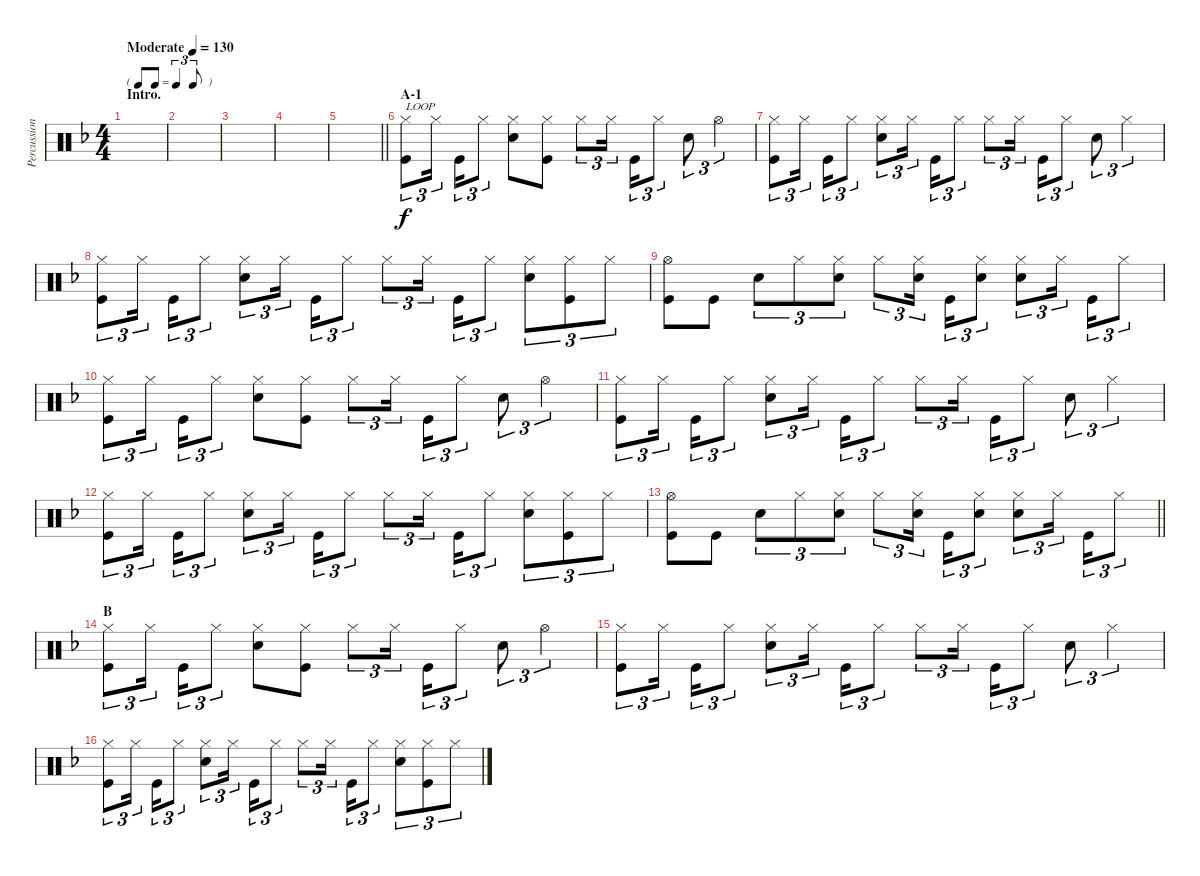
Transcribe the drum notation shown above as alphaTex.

\track ("Percussion I (Tainaka Ritsu)" "Percussion") {instrument percussion}
\staff {score}
\articulation defaults
\ts (4 4)
\tf triplet8th
\section ("" "Intro.")
\tempo (130 "Moderate")
\clef neutral
\ks f
|
|
|
|
\barLineRight lightlight
|
\section ("" "A-1")
("Hi-Hat (closed)" "Kick (hit)").8{tu (3 2) txt "LOOP"} "Hi-Hat (closed)".16{tu (3 2) beam splitsecondary} "Kick (hit)".16{tu (3 2)} "Hi-Hat (closed)".8{tu (3 2)} ("Hi-Hat (closed)" "Snare (hit) 2").8 ("Hi-Hat (closed)" "Kick (hit)").8 "Hi-Hat (closed)".8{tu (3 2)} "Hi-Hat (closed)".16{tu (3 2) beam splitsecondary} "Kick (hit)".16{tu (3 2)} "Hi-Hat (closed)".8{tu (3 2)} "Snare (hit) 2".8{tu (3 2)} "Hi-Hat (open)".4{tu (3 2)} |
("Hi-Hat (closed)" "Kick (hit)").8{tu (3 2)} "Hi-Hat (closed)".16{tu (3 2) beam splitsecondary} "Kick (hit)".16{tu (3 2)} "Hi-Hat (closed)".8{tu (3 2)} ("Hi-Hat (closed)" "Snare (hit) 2").8{tu (3 2)} "Hi-Hat (closed)".16{tu (3 2) beam splitsecondary} "Kick (hit)".16{tu (3 2)} "Hi-Hat (closed)".8{tu (3 2)} "Hi-Hat (closed)".8{tu (3 2)} "Hi-Hat (closed)".16{tu (3 2) beam splitsecondary} "Kick (hit)".16{tu (3 2)} "Hi-Hat (closed)".8{tu (3 2)} "Snare (hit) 2".8{tu (3 2)} "Hi-Hat (closed)".4{tu (3 2)} |
("Hi-Hat (closed)" "Kick (hit)").8{tu (3 2)} "Hi-Hat (closed)".16{tu (3 2) beam splitsecondary} "Kick (hit)".16{tu (3 2)} "Hi-Hat (closed)".8{tu (3 2)} ("Hi-Hat (closed)" "Snare (hit) 2").8{tu (3 2)} "Hi-Hat (closed)".16{tu (3 2) beam splitsecondary} "Kick (hit)".16{tu (3 2)} "Hi-Hat (closed)".8{tu (3 2)} "Hi-Hat (closed)".8{tu (3 2)} "Hi-Hat (closed)".16{tu (3 2) beam splitsecondary} "Kick (hit)".16{tu (3 2)} "Hi-Hat (closed)".8{tu (3 2)} ("Hi-Hat (closed)" "Snare (hit) 2").8{tu (3 2)} ("Hi-Hat (closed)" "Kick (hit)").8{tu (3 2)} "Hi-Hat (closed)".8{tu (3 2)} |
("Hi-Hat (open)" "Kick (hit)").8 "Kick (hit)".8 "Snare (hit) 2".8{tu (3 2)} "Hi-Hat (closed)".8{tu (3 2)} ("Hi-Hat (closed)" "Snare (hit) 2").8{tu (3 2)} "Hi-Hat (closed)".8{tu (3 2)} ("Hi-Hat (closed)" "Snare (hit) 2").16{tu (3 2) beam splitsecondary} "Kick (hit)".16{tu (3 2)} ("Hi-Hat (closed)" "Snare (hit) 2").8{tu (3 2)} ("Hi-Hat (closed)" "Snare (hit) 2").8{tu (3 2)} "Hi-Hat (closed)".16{tu (3 2) beam splitsecondary} "Kick (hit)".16{tu (3 2)} "Hi-Hat (closed)".8{tu (3 2)} |
("Hi-Hat (closed)" "Kick (hit)").8{tu (3 2)} "Hi-Hat (closed)".16{tu (3 2) beam splitsecondary} "Kick (hit)".16{tu (3 2)} "Hi-Hat (closed)".8{tu (3 2)} ("Hi-Hat (closed)" "Snare (hit) 2").8 ("Hi-Hat (closed)" "Kick (hit)").8 "Hi-Hat (closed)".8{tu (3 2)} "Hi-Hat (closed)".16{tu (3 2) beam splitsecondary} "Kick (hit)".16{tu (3 2)} "Hi-Hat (closed)".8{tu (3 2)} "Snare (hit) 2".8{tu (3 2)} "Hi-Hat (open)".4{tu (3 2)} |
("Hi-Hat (closed)" "Kick (hit)").8{tu (3 2)} "Hi-Hat (closed)".16{tu (3 2) beam splitsecondary} "Kick (hit)".16{tu (3 2)} "Hi-Hat (closed)".8{tu (3 2)} ("Hi-Hat (closed)" "Snare (hit) 2").8{tu (3 2)} "Hi-Hat (closed)".16{tu (3 2) beam splitsecondary} "Kick (hit)".16{tu (3 2)} "Hi-Hat (closed)".8{tu (3 2)} "Hi-Hat (closed)".8{tu (3 2)} "Hi-Hat (closed)".16{tu (3 2) beam splitsecondary} "Kick (hit)".16{tu (3 2)} "Hi-Hat (closed)".8{tu (3 2)} "Snare (hit) 2".8{tu (3 2)} "Hi-Hat (closed)".4{tu (3 2)} |
("Hi-Hat (closed)" "Kick (hit)").8{tu (3 2)} "Hi-Hat (closed)".16{tu (3 2) beam splitsecondary} "Kick (hit)".16{tu (3 2)} "Hi-Hat (closed)".8{tu (3 2)} ("Hi-Hat (closed)" "Snare (hit) 2").8{tu (3 2)} "Hi-Hat (closed)".16{tu (3 2) beam splitsecondary} "Kick (hit)".16{tu (3 2)} "Hi-Hat (closed)".8{tu (3 2)} "Hi-Hat (closed)".8{tu (3 2)} "Hi-Hat (closed)".16{tu (3 2) beam splitsecondary} "Kick (hit)".16{tu (3 2)} "Hi-Hat (closed)".8{tu (3 2)} ("Hi-Hat (closed)" "Snare (hit) 2").8{tu (3 2)} ("Hi-Hat (closed)" "Kick (hit)").8{tu (3 2)} "Hi-Hat (closed)".8{tu (3 2)} |
\barLineRight lightlight
("Hi-Hat (open)" "Kick (hit)").8 "Kick (hit)".8 "Snare (hit) 2".8{tu (3 2)} "Hi-Hat (closed)".8{tu (3 2)} ("Hi-Hat (closed)" "Snare (hit) 2").8{tu (3 2)} "Hi-Hat (closed)".8{tu (3 2)} ("Hi-Hat (closed)" "Snare (hit) 2").16{tu (3 2) beam splitsecondary} "Kick (hit)".16{tu (3 2)} ("Hi-Hat (closed)" "Snare (hit) 2").8{tu (3 2)} ("Hi-Hat (closed)" "Snare (hit) 2").8{tu (3 2)} "Hi-Hat (closed)".16{tu (3 2) beam splitsecondary} "Kick (hit)".16{tu (3 2)} "Hi-Hat (closed)".8{tu (3 2)} |
\section ("" "B")
("Hi-Hat (closed)" "Kick (hit)").8{tu (3 2)} "Hi-Hat (closed)".16{tu (3 2) beam splitsecondary} "Kick (hit)".16{tu (3 2)} "Hi-Hat (closed)".8{tu (3 2)} ("Hi-Hat (closed)" "Snare (hit) 2").8 ("Hi-Hat (closed)" "Kick (hit)").8 "Hi-Hat (closed)".8{tu (3 2)} "Hi-Hat (closed)".16{tu (3 2) beam splitsecondary} "Kick (hit)".16{tu (3 2)} "Hi-Hat (closed)".8{tu (3 2)} "Snare (hit) 2".8{tu (3 2)} "Hi-Hat (open)".4{tu (3 2)} |
("Hi-Hat (closed)" "Kick (hit)").8{tu (3 2)} "Hi-Hat (closed)".16{tu (3 2) beam splitsecondary} "Kick (hit)".16{tu (3 2)} "Hi-Hat (closed)".8{tu (3 2)} ("Hi-Hat (closed)" "Snare (hit) 2").8{tu (3 2)} "Hi-Hat (closed)".16{tu (3 2) beam splitsecondary} "Kick (hit)".16{tu (3 2)} "Hi-Hat (closed)".8{tu (3 2)} "Hi-Hat (closed)".8{tu (3 2)} "Hi-Hat (closed)".16{tu (3 2) beam splitsecondary} "Kick (hit)".16{tu (3 2)} "Hi-Hat (closed)".8{tu (3 2)} "Snare (hit) 2".8{tu (3 2)} "Hi-Hat (closed)".4{tu (3 2)} |
("Hi-Hat (closed)" "Kick (hit)").8{tu (3 2)} "Hi-Hat (closed)".16{tu (3 2) beam splitsecondary} "Kick (hit)".16{tu (3 2)} "Hi-Hat (closed)".8{tu (3 2)} ("Hi-Hat (closed)" "Snare (hit) 2").8{tu (3 2)} "Hi-Hat (closed)".16{tu (3 2) beam splitsecondary} "Kick (hit)".16{tu (3 2)} "Hi-Hat (closed)".8{tu (3 2)} "Hi-Hat (closed)".8{tu (3 2)} "Hi-Hat (closed)".16{tu (3 2) beam splitsecondary} "Kick (hit)".16{tu (3 2)} "Hi-Hat (closed)".8{tu (3 2)} ("Hi-Hat (closed)" "Snare (hit) 2").8{tu (3 2)} ("Hi-Hat (closed)" "Kick (hit)").8{tu (3 2)} "Hi-Hat (closed)".8{tu (3 2)}
